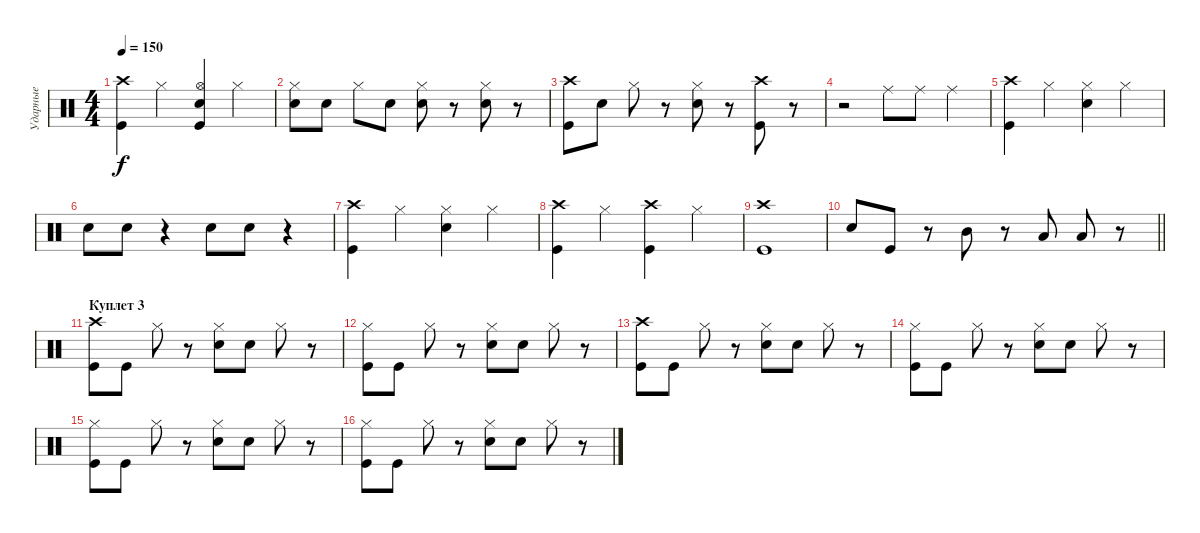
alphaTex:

\track ("Ударные" "Ударные") {instrument percussion}
\staff {score}
\articulation defaults
\ts (4 4)
\tempo 150
\clef neutral
\ks c
("Crash high (hit)" "Kick (hit)").4{dy f} "Hi-Hat (closed)".4 ("Hi-Hat (open)" "Snare (hit) 2" "Kick (hit)").4 "Hi-Hat (closed)".4 |
("Hi-Hat (closed)" "Snare (hit) 2").8 "Snare (hit) 2".8 "Hi-Hat (closed)".8 "Snare (hit) 2".8 ("Hi-Hat (closed)" "Snare (hit) 2").8 r.8 ("Hi-Hat (closed)" "Snare (hit) 2").8 r.8 |
("Crash high (hit)" "Kick (hit)").8 "Snare (hit) 2".8 "Hi-Hat (closed)".8 r.8 ("Hi-Hat (closed)" "Snare (hit) 2").8 r.8 ("Crash high (hit)" "Kick (hit)").8 r.8 |
r.2 "Ride (middle)".8 "Ride (middle)".8 "Ride (middle)".4 |
("Crash high (hit)" "Kick (hit)").4 "Hi-Hat (closed)".4 ("Hi-Hat (closed)" "Snare (hit) 2").4 "Hi-Hat (closed)".4 |
"Snare (hit) 2".8 "Snare (hit) 2".8 r.4 "Snare (hit) 2".8 "Snare (hit) 2".8 r.4 |
("Crash high (hit)" "Kick (hit)").4 "Hi-Hat (closed)".4 ("Hi-Hat (closed)" "Snare (hit) 2").4 "Hi-Hat (closed)".4 |
("Crash high (hit)" "Kick (hit)").4 "Hi-Hat (closed)".4 ("Crash high (hit)" "Kick (hit)").4 "Hi-Hat (closed)".4 |
("Crash high (hit)" "Kick (hit)").1 |
\barLineRight lightlight "Snare (hit) 2".8 "Kick (hit)".8
r.8 "Mid Tom (hit)".8 r.8 "Low Tom (hit)".8 "Low Tom (hit)".8 r.8 |
\section ("" "Куплет 3")
("Crash high (hit)" "Kick (hit)").8 "Kick (hit)".8 "Hi-Hat (closed)".8 r.8 ("Hi-Hat (closed)" "Snare (hit) 2").8 "Snare (hit) 2".8 "Hi-Hat (closed)".8 r.8 |
("Hi-Hat (closed)" "Kick (hit)").8 "Kick (hit)".8 "Hi-Hat (closed)".8 r.8 ("Hi-Hat (closed)" "Snare (hit) 2").8 "Snare (hit) 2".8 "Hi-Hat (closed)".8 r.8 |
("Crash high (hit)" "Kick (hit)").8 "Kick (hit)".8 "Hi-Hat (closed)".8 r.8 ("Hi-Hat (closed)" "Snare (hit) 2").8 "Snare (hit) 2".8 "Hi-Hat (closed)".8 r.8 |
("Hi-Hat (closed)" "Kick (hit)").8 "Kick (hit)".8 "Hi-Hat (closed)".8 r.8 ("Hi-Hat (closed)" "Snare (hit) 2").8 "Snare (hit) 2".8 "Hi-Hat (closed)".8 r.8 |
("Hi-Hat (closed)" "Kick (hit)").8 "Kick (hit)".8 "Hi-Hat (closed)".8 r.8 ("Hi-Hat (closed)" "Snare (hit) 2").8 "Snare (hit) 2".8 "Hi-Hat (closed)".8 r.8 |
("Hi-Hat (closed)" "Kick (hit)").8 "Kick (hit)".8 "Hi-Hat (closed)".8 r.8 ("Hi-Hat (closed)" "Snare (hit) 2").8 "Snare (hit) 2".8 "Hi-Hat (closed)".8 r.8
